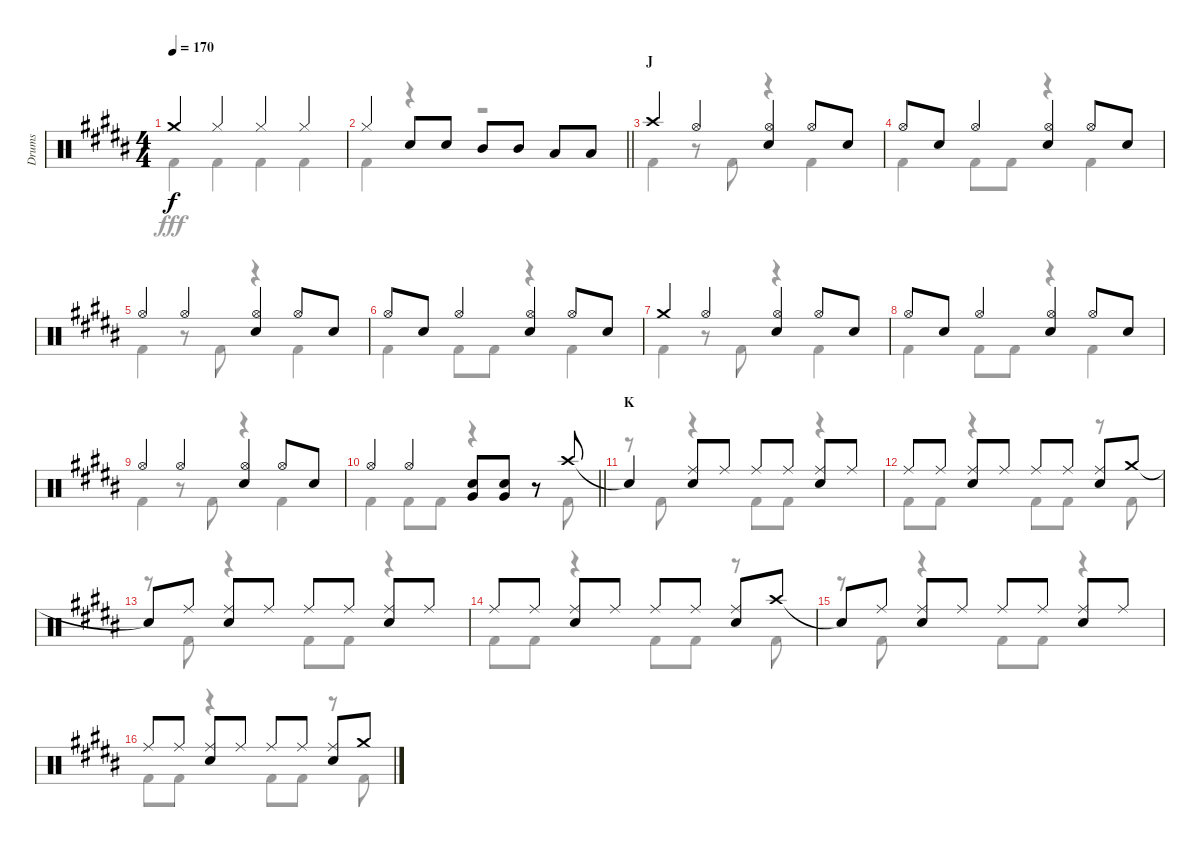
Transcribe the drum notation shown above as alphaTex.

\track ("Drums" "Drums") {instrument percussion}
\staff {score}
\articulation defaults
\voice
\ts (4 4)
\tempo 170
\clef neutral
\ks b "Crash medium (hit)".4{dy f} "Hi-Hat (closed)".4 "Hi-Hat (closed)".4 "Hi-Hat (closed)".4
|
\barLineRight lightlight "Hi-Hat (closed)".4 "Snare (hit) 2".8 "Snare (hit) 2".8 "Mid Tom (hit)".8 "Mid Tom (hit)".8 "Low Tom (hit)".8 "Low Tom (hit)".8
|
\section ("" "J")
"Crash high (hit)".4 "Hi-Hat (open)".4 ("Hi-Hat (open)" "Snare (hit) 2").4 "Hi-Hat (open)".8 "Snare (hit) 2".8 |
"Hi-Hat (open)".8 "Snare (hit) 2".8 "Hi-Hat (open)".4 ("Hi-Hat (open)" "Snare (hit) 2").4 "Hi-Hat (open)".8 "Snare (hit) 2".8 |
"Hi-Hat (open)".4 "Hi-Hat (open)".4 ("Hi-Hat (open)" "Snare (hit) 2").4 "Hi-Hat (open)".8 "Snare (hit) 2".8 |
"Hi-Hat (open)".8 "Snare (hit) 2".8 "Hi-Hat (open)".4 ("Hi-Hat (open)" "Snare (hit) 2").4 "Hi-Hat (open)".8 "Snare (hit) 2".8 |
"Crash medium (hit)".4 "Hi-Hat (open)".4 ("Hi-Hat (open)" "Snare (hit) 2").4 "Hi-Hat (open)".8 "Snare (hit) 2".8 |
"Hi-Hat (open)".8 "Snare (hit) 2".8 "Hi-Hat (open)".4 ("Hi-Hat (open)" "Snare (hit) 2").4 "Hi-Hat (open)".8 "Snare (hit) 2".8 |
"Hi-Hat (open)".4 "Hi-Hat (open)".4 ("Hi-Hat (open)" "Snare (hit) 2").4 "Hi-Hat (open)".8 "Snare (hit) 2".8 |
\barLineRight lightlight "Hi-Hat (open)".4 "Hi-Hat (open)".4
("Snare (hit) 2" "Very Low Tom (hit)").8 ("Snare (hit) 2" "Very Low Tom (hit)").8 r.8 "Crash high (hit)".8 |
\section ("" "K")
"Snare (hit)"{t}.4 ("Ride (middle)" "Snare (hit) 2").8 "Ride (middle)".8 "Ride (middle)".8 "Ride (middle)".8 ("Ride (middle)" "Snare (hit) 2").8 "Ride (middle)".8 |
"Ride (middle)".8 "Ride (middle)".8 ("Ride (middle)" "Snare (hit) 2").8 "Ride (middle)".8 "Ride (middle)".8 "Ride (middle)".8 ("Ride (middle)" "Snare (hit) 2").8 "Crash medium (hit)".8 |
"Snare (hit)"{t}.8 "Ride (middle)".8 ("Ride (middle)" "Snare (hit) 2").8 "Ride (middle)".8 "Ride (middle)".8 "Ride (middle)".8 ("Ride (middle)" "Snare (hit) 2").8 "Ride (middle)".8 |
"Ride (middle)".8 "Ride (middle)".8 ("Ride (middle)" "Snare (hit) 2").8 "Ride (middle)".8 "Ride (middle)".8 "Ride (middle)".8 ("Ride (middle)" "Snare (hit) 2").8 "Crash high (hit)".8 |
"Snare (hit)"{t}.8 "Ride (middle)".8 ("Ride (middle)" "Snare (hit) 2").8 "Ride (middle)".8 "Ride (middle)".8 "Ride (middle)".8 ("Ride (middle)" "Snare (hit) 2").8 "Ride (middle)".8 |
"Ride (middle)".8 "Ride (middle)".8 ("Ride (middle)" "Snare (hit) 2").8 "Ride (middle)".8 "Ride (middle)".8 "Ride (middle)".8 ("Ride (middle)" "Snare (hit) 2").8 "Crash medium (hit)".8
\voice
\clef neutral
\ottava regular
\simile none
\ks b "Kick (hit) 2".4{dy fff} "Kick (hit) 2".4 "Kick (hit) 2".4 "Kick (hit) 2".4
|
\barLineRight lightlight "Kick (hit) 2".4
r.4 r.2 |
"Kick (hit) 2".4 r.8 "Kick (hit) 2".8 r.4 "Kick (hit) 2".4 |
"Kick (hit) 2".4 "Kick (hit) 2".8 "Kick (hit) 2".8 r.4 "Kick (hit) 2".4 |
"Kick (hit) 2".4 r.8 "Kick (hit) 2".8 r.4 "Kick (hit) 2".4 |
"Kick (hit) 2".4 "Kick (hit) 2".8 "Kick (hit) 2".8 r.4 "Kick (hit) 2".4 |
"Kick (hit) 2".4 r.8 "Kick (hit) 2".8 r.4 "Kick (hit) 2".4 |
"Kick (hit) 2".4 "Kick (hit) 2".8 "Kick (hit) 2".8 r.4 "Kick (hit) 2".4 |
"Kick (hit) 2".4 r.8 "Kick (hit) 2".8 r.4 "Kick (hit) 2".4 |
\barLineRight lightlight "Kick (hit) 2".4 "Kick (hit) 2".8 "Kick (hit) 2".8
r.4 r.8 "Kick (hit) 2".8 |
r.8 "Kick (hit) 2".8 r.4 "Kick (hit) 2".8 "Kick (hit) 2".8 r.4 |
"Kick (hit) 2".8 "Kick (hit) 2".8 r.4 "Kick (hit) 2".8 "Kick (hit) 2".8 r.8 "Kick (hit) 2".8 |
r.8 "Kick (hit) 2".8 r.4 "Kick (hit) 2".8 "Kick (hit) 2".8 r.4 |
"Kick (hit) 2".8 "Kick (hit) 2".8 r.4 "Kick (hit) 2".8 "Kick (hit) 2".8 r.8 "Kick (hit) 2".8 |
r.8 "Kick (hit) 2".8 r.4 "Kick (hit) 2".8 "Kick (hit) 2".8 r.4 |
"Kick (hit) 2".8 "Kick (hit) 2".8 r.4 "Kick (hit) 2".8 "Kick (hit) 2".8 r.8 "Kick (hit) 2".8
